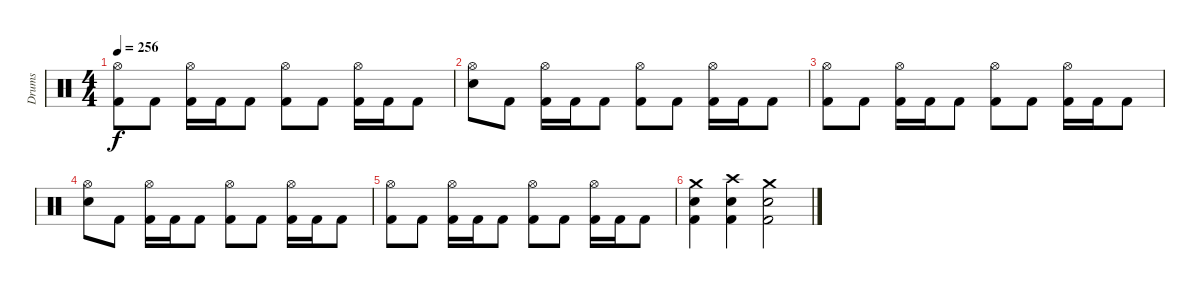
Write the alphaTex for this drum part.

\track ("Drums" "Drums") {instrument percussion}
\staff {score}
\articulation defaults
\ts (4 4)
\tempo 256
\clef neutral
\ks c
("Hi-Hat (open)" "Kick (hit) 2").8{dy f} "Kick (hit) 2".8 ("Hi-Hat (open)" "Kick (hit) 2").16 "Kick (hit) 2".16 "Kick (hit) 2".8 ("Hi-Hat (open)" "Kick (hit) 2").8 "Kick (hit) 2".8 ("Hi-Hat (open)" "Kick (hit) 2").16 "Kick (hit) 2".16 "Kick (hit) 2".8 |
("Hi-Hat (open)" "Electric Snare (hit)").8 "Kick (hit) 2".8 ("Hi-Hat (open)" "Kick (hit) 2").16 "Kick (hit) 2".16 "Kick (hit) 2".8 ("Hi-Hat (open)" "Kick (hit) 2").8 "Kick (hit) 2".8 ("Hi-Hat (open)" "Kick (hit) 2").16 "Kick (hit) 2".16 "Kick (hit) 2".8 |
("Hi-Hat (open)" "Kick (hit) 2").8 "Kick (hit) 2".8 ("Hi-Hat (open)" "Kick (hit) 2").16 "Kick (hit) 2".16 "Kick (hit) 2".8 ("Hi-Hat (open)" "Kick (hit) 2").8 "Kick (hit) 2".8 ("Hi-Hat (open)" "Kick (hit) 2").16 "Kick (hit) 2".16 "Kick (hit) 2".8 |
("Hi-Hat (open)" "Electric Snare (hit)").8 "Kick (hit) 2".8 ("Hi-Hat (open)" "Kick (hit) 2").16 "Kick (hit) 2".16 "Kick (hit) 2".8 ("Hi-Hat (open)" "Kick (hit) 2").8 "Kick (hit) 2".8 ("Hi-Hat (open)" "Kick (hit) 2").16 "Kick (hit) 2".16 "Kick (hit) 2".8 |
("Hi-Hat (open)" "Kick (hit) 2").8 "Kick (hit) 2".8 ("Hi-Hat (open)" "Kick (hit) 2").16 "Kick (hit) 2".16 "Kick (hit) 2".8 ("Hi-Hat (open)" "Kick (hit) 2").8 "Kick (hit) 2".8 ("Hi-Hat (open)" "Kick (hit) 2").16 "Kick (hit) 2".16 "Kick (hit) 2".8 |
("Electric Snare (hit)" "Crash medium (hit)" "Kick (hit) 2").4 ("Crash high (hit)" "Electric Snare (hit)" "Kick (hit) 2").4 ("Crash medium (hit)" "Electric Snare (hit)" "Kick (hit) 2").2
